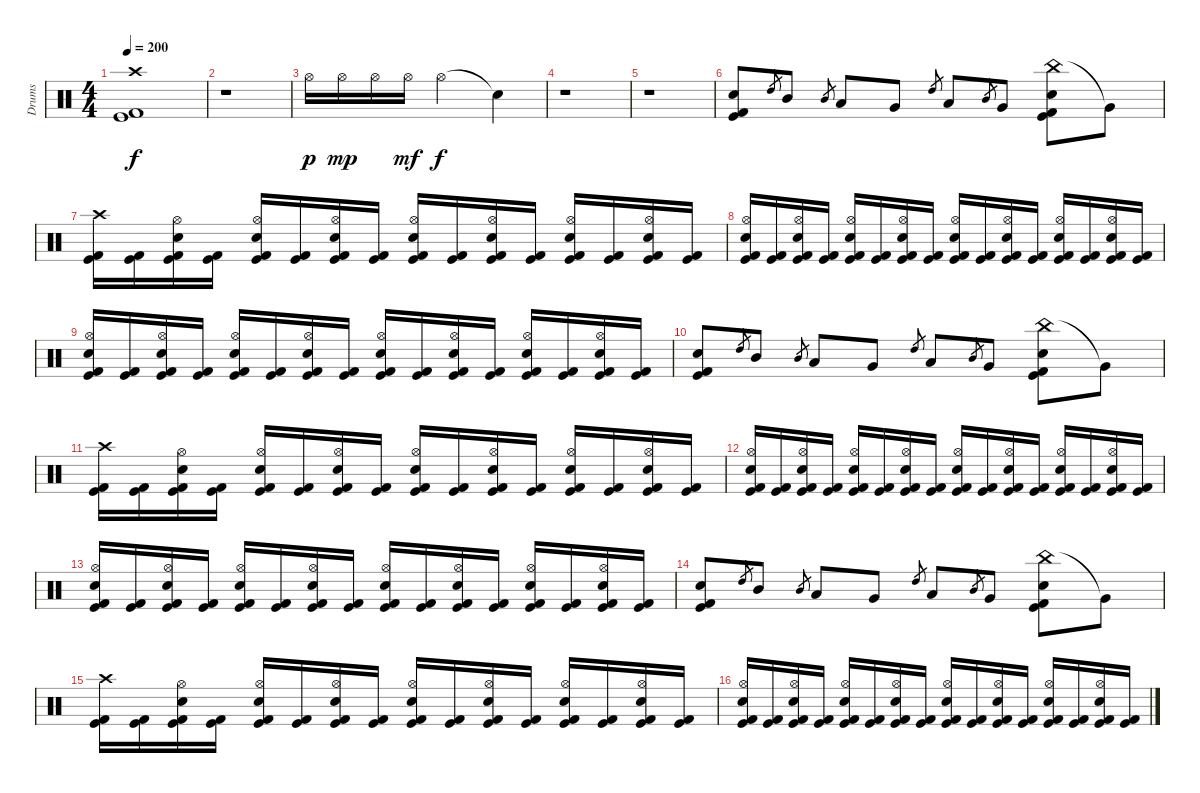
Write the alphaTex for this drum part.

\track ("Drums" "Drums") {instrument percussion}
\staff {score}
\articulation defaults
\ts (4 4)
\tempo 200
\clef neutral
\ks c
("Crash high (hit)" "Kick (hit)" "Kick (hit) 2").1{dy f} |
r.1 |
"Hi-Hat (open)".16{dy p} "Hi-Hat (open)".16{dy mp} "Hi-Hat (open)".16 "Hi-Hat (open)".16{dy mf} "Hi-Hat (open)".2{dy f} "Snare (hit)"{t}.4 |
r.1 |
r.1 |
("Electric Snare (hit)" "Kick (hit)" "Kick (hit) 2").8 "High Tom (hit)".8{gr} "Mid Tom (hit)".8 "Mid Tom (hit)".8{gr} "Low Tom (hit)".8 "Very Low Tom (hit)".8 "High Tom (hit)".8{gr} "Low Tom (hit)".8 "Mid Tom (hit)".8{gr} "Very Low Tom (hit)".8 ("China (hit)" "Electric Snare (hit)" "Kick (hit)" "Kick (hit) 2").8 "Very Low Tom (hit)"{t}.8 |
("Crash high (hit)" "Kick (hit)" "Kick (hit) 2").16 ("Kick (hit)" "Kick (hit) 2").16 ("Hi-Hat (open)" "Electric Snare (hit)" "Kick (hit)" "Kick (hit) 2").16 ("Kick (hit)" "Kick (hit) 2").16 ("Hi-Hat (open)" "Electric Snare (hit)" "Kick (hit)" "Kick (hit) 2").16 ("Kick (hit)" "Kick (hit) 2").16 ("Hi-Hat (open)" "Electric Snare (hit)" "Kick (hit)" "Kick (hit) 2").16 ("Kick (hit)" "Kick (hit) 2").16 ("Hi-Hat (open)" "Electric Snare (hit)" "Kick (hit)" "Kick (hit) 2").16 ("Kick (hit)" "Kick (hit) 2").16 ("Hi-Hat (open)" "Electric Snare (hit)" "Kick (hit)" "Kick (hit) 2").16 ("Kick (hit)" "Kick (hit) 2").16 ("Hi-Hat (open)" "Electric Snare (hit)" "Kick (hit)" "Kick (hit) 2").16 ("Kick (hit)" "Kick (hit) 2").16 ("Hi-Hat (open)" "Electric Snare (hit)" "Kick (hit)" "Kick (hit) 2").16 ("Kick (hit)" "Kick (hit) 2").16 |
("Hi-Hat (open)" "Electric Snare (hit)" "Kick (hit)" "Kick (hit) 2").16 ("Kick (hit)" "Kick (hit) 2").16 ("Hi-Hat (open)" "Electric Snare (hit)" "Kick (hit)" "Kick (hit) 2").16 ("Kick (hit)" "Kick (hit) 2").16 ("Hi-Hat (open)" "Electric Snare (hit)" "Kick (hit)" "Kick (hit) 2").16 ("Kick (hit)" "Kick (hit) 2").16 ("Hi-Hat (open)" "Electric Snare (hit)" "Kick (hit)" "Kick (hit) 2").16 ("Kick (hit)" "Kick (hit) 2").16 ("Hi-Hat (open)" "Electric Snare (hit)" "Kick (hit)" "Kick (hit) 2").16 ("Kick (hit)" "Kick (hit) 2").16 ("Hi-Hat (open)" "Electric Snare (hit)" "Kick (hit)" "Kick (hit) 2").16 ("Kick (hit)" "Kick (hit) 2").16 ("Hi-Hat (open)" "Electric Snare (hit)" "Kick (hit)" "Kick (hit) 2").16 ("Kick (hit)" "Kick (hit) 2").16 ("Hi-Hat (open)" "Electric Snare (hit)" "Kick (hit)" "Kick (hit) 2").16 ("Kick (hit)" "Kick (hit) 2").16 |
("Hi-Hat (open)" "Electric Snare (hit)" "Kick (hit)" "Kick (hit) 2").16 ("Kick (hit)" "Kick (hit) 2").16 ("Hi-Hat (open)" "Electric Snare (hit)" "Kick (hit)" "Kick (hit) 2").16 ("Kick (hit)" "Kick (hit) 2").16 ("Hi-Hat (open)" "Electric Snare (hit)" "Kick (hit)" "Kick (hit) 2").16 ("Kick (hit)" "Kick (hit) 2").16 ("Hi-Hat (open)" "Electric Snare (hit)" "Kick (hit)" "Kick (hit) 2").16 ("Kick (hit)" "Kick (hit) 2").16 ("Hi-Hat (open)" "Electric Snare (hit)" "Kick (hit)" "Kick (hit) 2").16 ("Kick (hit)" "Kick (hit) 2").16 ("Hi-Hat (open)" "Electric Snare (hit)" "Kick (hit)" "Kick (hit) 2").16 ("Kick (hit)" "Kick (hit) 2").16 ("Hi-Hat (open)" "Electric Snare (hit)" "Kick (hit)" "Kick (hit) 2").16 ("Kick (hit)" "Kick (hit) 2").16 ("Hi-Hat (open)" "Electric Snare (hit)" "Kick (hit)" "Kick (hit) 2").16 ("Kick (hit)" "Kick (hit) 2").16 |
("Electric Snare (hit)" "Kick (hit)" "Kick (hit) 2").8 "High Tom (hit)".8{gr} "Mid Tom (hit)".8 "Mid Tom (hit)".8{gr} "Low Tom (hit)".8 "Very Low Tom (hit)".8 "High Tom (hit)".8{gr} "Low Tom (hit)".8 "Mid Tom (hit)".8{gr} "Very Low Tom (hit)".8 ("China (hit)" "Electric Snare (hit)" "Kick (hit)" "Kick (hit) 2").8 "Very Low Tom (hit)"{t}.8 |
("Crash high (hit)" "Kick (hit)" "Kick (hit) 2").16 ("Kick (hit)" "Kick (hit) 2").16 ("Hi-Hat (open)" "Electric Snare (hit)" "Kick (hit)" "Kick (hit) 2").16 ("Kick (hit)" "Kick (hit) 2").16 ("Hi-Hat (open)" "Electric Snare (hit)" "Kick (hit)" "Kick (hit) 2").16 ("Kick (hit)" "Kick (hit) 2").16 ("Hi-Hat (open)" "Electric Snare (hit)" "Kick (hit)" "Kick (hit) 2").16 ("Kick (hit)" "Kick (hit) 2").16 ("Hi-Hat (open)" "Electric Snare (hit)" "Kick (hit)" "Kick (hit) 2").16 ("Kick (hit)" "Kick (hit) 2").16 ("Hi-Hat (open)" "Electric Snare (hit)" "Kick (hit)" "Kick (hit) 2").16 ("Kick (hit)" "Kick (hit) 2").16 ("Hi-Hat (open)" "Electric Snare (hit)" "Kick (hit)" "Kick (hit) 2").16 ("Kick (hit)" "Kick (hit) 2").16 ("Hi-Hat (open)" "Electric Snare (hit)" "Kick (hit)" "Kick (hit) 2").16 ("Kick (hit)" "Kick (hit) 2").16 |
("Hi-Hat (open)" "Electric Snare (hit)" "Kick (hit)" "Kick (hit) 2").16 ("Kick (hit)" "Kick (hit) 2").16 ("Hi-Hat (open)" "Electric Snare (hit)" "Kick (hit)" "Kick (hit) 2").16 ("Kick (hit)" "Kick (hit) 2").16 ("Hi-Hat (open)" "Electric Snare (hit)" "Kick (hit)" "Kick (hit) 2").16 ("Kick (hit)" "Kick (hit) 2").16 ("Hi-Hat (open)" "Electric Snare (hit)" "Kick (hit)" "Kick (hit) 2").16 ("Kick (hit)" "Kick (hit) 2").16 ("Hi-Hat (open)" "Electric Snare (hit)" "Kick (hit)" "Kick (hit) 2").16 ("Kick (hit)" "Kick (hit) 2").16 ("Hi-Hat (open)" "Electric Snare (hit)" "Kick (hit)" "Kick (hit) 2").16 ("Kick (hit)" "Kick (hit) 2").16 ("Hi-Hat (open)" "Electric Snare (hit)" "Kick (hit)" "Kick (hit) 2").16 ("Kick (hit)" "Kick (hit) 2").16 ("Hi-Hat (open)" "Electric Snare (hit)" "Kick (hit)" "Kick (hit) 2").16 ("Kick (hit)" "Kick (hit) 2").16 |
("Hi-Hat (open)" "Electric Snare (hit)" "Kick (hit)" "Kick (hit) 2").16 ("Kick (hit)" "Kick (hit) 2").16 ("Hi-Hat (open)" "Electric Snare (hit)" "Kick (hit)" "Kick (hit) 2").16 ("Kick (hit)" "Kick (hit) 2").16 ("Hi-Hat (open)" "Electric Snare (hit)" "Kick (hit)" "Kick (hit) 2").16 ("Kick (hit)" "Kick (hit) 2").16 ("Hi-Hat (open)" "Electric Snare (hit)" "Kick (hit)" "Kick (hit) 2").16 ("Kick (hit)" "Kick (hit) 2").16 ("Hi-Hat (open)" "Electric Snare (hit)" "Kick (hit)" "Kick (hit) 2").16 ("Kick (hit)" "Kick (hit) 2").16 ("Hi-Hat (open)" "Electric Snare (hit)" "Kick (hit)" "Kick (hit) 2").16 ("Kick (hit)" "Kick (hit) 2").16 ("Hi-Hat (open)" "Electric Snare (hit)" "Kick (hit)" "Kick (hit) 2").16 ("Kick (hit)" "Kick (hit) 2").16 ("Hi-Hat (open)" "Electric Snare (hit)" "Kick (hit)" "Kick (hit) 2").16 ("Kick (hit)" "Kick (hit) 2").16 |
("Electric Snare (hit)" "Kick (hit)" "Kick (hit) 2").8 "High Tom (hit)".8{gr} "Mid Tom (hit)".8 "Mid Tom (hit)".8{gr} "Low Tom (hit)".8 "Very Low Tom (hit)".8 "High Tom (hit)".8{gr} "Low Tom (hit)".8 "Mid Tom (hit)".8{gr} "Very Low Tom (hit)".8 ("China (hit)" "Electric Snare (hit)" "Kick (hit)" "Kick (hit) 2").8 "Very Low Tom (hit)"{t}.8 |
("Crash high (hit)" "Kick (hit)" "Kick (hit) 2").16 ("Kick (hit)" "Kick (hit) 2").16 ("Hi-Hat (open)" "Electric Snare (hit)" "Kick (hit)" "Kick (hit) 2").16 ("Kick (hit)" "Kick (hit) 2").16 ("Hi-Hat (open)" "Electric Snare (hit)" "Kick (hit)" "Kick (hit) 2").16 ("Kick (hit)" "Kick (hit) 2").16 ("Hi-Hat (open)" "Electric Snare (hit)" "Kick (hit)" "Kick (hit) 2").16 ("Kick (hit)" "Kick (hit) 2").16 ("Hi-Hat (open)" "Electric Snare (hit)" "Kick (hit)" "Kick (hit) 2").16 ("Kick (hit)" "Kick (hit) 2").16 ("Hi-Hat (open)" "Electric Snare (hit)" "Kick (hit)" "Kick (hit) 2").16 ("Kick (hit)" "Kick (hit) 2").16 ("Hi-Hat (open)" "Electric Snare (hit)" "Kick (hit)" "Kick (hit) 2").16 ("Kick (hit)" "Kick (hit) 2").16 ("Hi-Hat (open)" "Electric Snare (hit)" "Kick (hit)" "Kick (hit) 2").16 ("Kick (hit)" "Kick (hit) 2").16 |
("Hi-Hat (open)" "Electric Snare (hit)" "Kick (hit)" "Kick (hit) 2").16 ("Kick (hit)" "Kick (hit) 2").16 ("Hi-Hat (open)" "Electric Snare (hit)" "Kick (hit)" "Kick (hit) 2").16 ("Kick (hit)" "Kick (hit) 2").16 ("Hi-Hat (open)" "Electric Snare (hit)" "Kick (hit)" "Kick (hit) 2").16 ("Kick (hit)" "Kick (hit) 2").16 ("Hi-Hat (open)" "Electric Snare (hit)" "Kick (hit)" "Kick (hit) 2").16 ("Kick (hit)" "Kick (hit) 2").16 ("Hi-Hat (open)" "Electric Snare (hit)" "Kick (hit)" "Kick (hit) 2").16 ("Kick (hit)" "Kick (hit) 2").16 ("Hi-Hat (open)" "Electric Snare (hit)" "Kick (hit)" "Kick (hit) 2").16 ("Kick (hit)" "Kick (hit) 2").16 ("Hi-Hat (open)" "Electric Snare (hit)" "Kick (hit)" "Kick (hit) 2").16 ("Kick (hit)" "Kick (hit) 2").16 ("Hi-Hat (open)" "Electric Snare (hit)" "Kick (hit)" "Kick (hit) 2").16 ("Kick (hit)" "Kick (hit) 2").16
